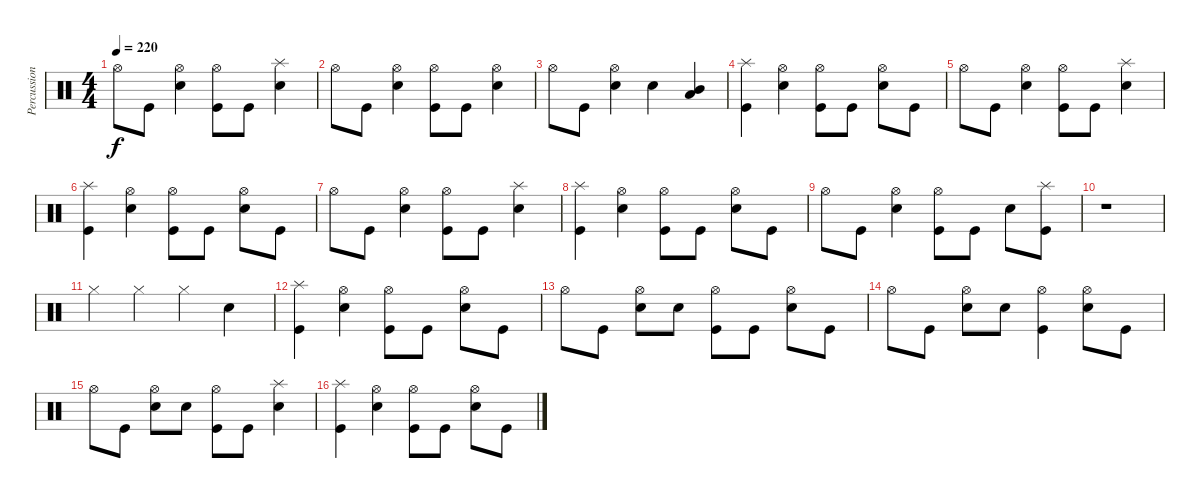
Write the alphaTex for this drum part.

\track ("Percussions" "Percussion") {instrument percussion}
\staff {score}
\articulation defaults
\ts (4 4)
\tempo 220
\clef neutral
\ks c "Hi-Hat (open)".8{dy f} "Kick (hit)".8
("Electric Snare (hit)" "Hi-Hat (open)").4 ("Kick (hit)" "Hi-Hat (open)").8 "Kick (hit)".8 ("Electric Snare (hit)" "Splash (hit)").4 |
"Hi-Hat (open)".8 "Kick (hit)".8 ("Electric Snare (hit)" "Hi-Hat (open)").4 ("Kick (hit)" "Hi-Hat (open)").8 "Kick (hit)".8 ("Electric Snare (hit)" "Hi-Hat (open)").4 |
"Hi-Hat (open)".8 "Kick (hit)".8 ("Electric Snare (hit)" "Hi-Hat (open)").4 "Electric Snare (hit)".4 ("Low Tom (hit)" "Mid Tom (hit)").4 |
("Kick (hit)" "Splash (hit)").4 ("Electric Snare (hit)" "Hi-Hat (open)").4 ("Kick (hit)" "Hi-Hat (open)").8 "Kick (hit)".8 ("Electric Snare (hit)" "Hi-Hat (open)").8 "Kick (hit)".8 |
"Hi-Hat (open)".8 "Kick (hit)".8 ("Electric Snare (hit)" "Hi-Hat (open)").4 ("Kick (hit)" "Hi-Hat (open)").8 "Kick (hit)".8 ("Electric Snare (hit)" "Splash (hit)").4 |
("Kick (hit)" "Splash (hit)").4 ("Electric Snare (hit)" "Hi-Hat (open)").4 ("Kick (hit)" "Hi-Hat (open)").8 "Kick (hit)".8 ("Electric Snare (hit)" "Hi-Hat (open)").8 "Kick (hit)".8 |
"Hi-Hat (open)".8 "Kick (hit)".8 ("Electric Snare (hit)" "Hi-Hat (open)").4 ("Kick (hit)" "Hi-Hat (open)").8 "Kick (hit)".8 ("Electric Snare (hit)" "Splash (hit)").4 |
("Kick (hit)" "Splash (hit)").4 ("Electric Snare (hit)" "Hi-Hat (open)").4 ("Kick (hit)" "Hi-Hat (open)").8 "Kick (hit)".8 ("Electric Snare (hit)" "Hi-Hat (open)").8 "Kick (hit)".8 |
"Hi-Hat (open)".8 "Kick (hit)".8 ("Electric Snare (hit)" "Hi-Hat (open)").4 ("Kick (hit)" "Hi-Hat (open)").8 "Kick (hit)".8 "Electric Snare (hit)".8 ("Kick (hit)" "Splash (hit)").8 |
r.1 |
"Hi-Hat (closed)".4 "Hi-Hat (closed)".4 "Hi-Hat (closed)".4 "Electric Snare (hit)".4 |
("Kick (hit)" "Splash (hit)").4 ("Electric Snare (hit)" "Hi-Hat (open)").4 ("Kick (hit)" "Hi-Hat (open)").8 "Kick (hit)".8 ("Electric Snare (hit)" "Hi-Hat (open)").8 "Kick (hit)".8 |
"Hi-Hat (open)".8 "Kick (hit)".8 ("Electric Snare (hit)" "Hi-Hat (open)").8 "Electric Snare (hit)".8 ("Kick (hit)" "Hi-Hat (open)").8 "Kick (hit)".8 ("Electric Snare (hit)" "Hi-Hat (open)").8 "Kick (hit)".8 |
"Hi-Hat (open)".8 "Kick (hit)".8 ("Electric Snare (hit)" "Hi-Hat (open)").8 "Electric Snare (hit)".8 ("Kick (hit)" "Hi-Hat (open)").4 ("Electric Snare (hit)" "Hi-Hat (open)").8 "Kick (hit)".8 |
"Hi-Hat (open)".8 "Kick (hit)".8 ("Electric Snare (hit)" "Hi-Hat (open)").8 "Electric Snare (hit)".8 ("Kick (hit)" "Hi-Hat (open)").8 "Kick (hit)".8 ("Electric Snare (hit)" "Splash (hit)").4 |
("Kick (hit)" "Splash (hit)").4 ("Electric Snare (hit)" "Hi-Hat (open)").4 ("Kick (hit)" "Hi-Hat (open)").8 "Kick (hit)".8 ("Electric Snare (hit)" "Hi-Hat (open)").8 "Kick (hit)".8
